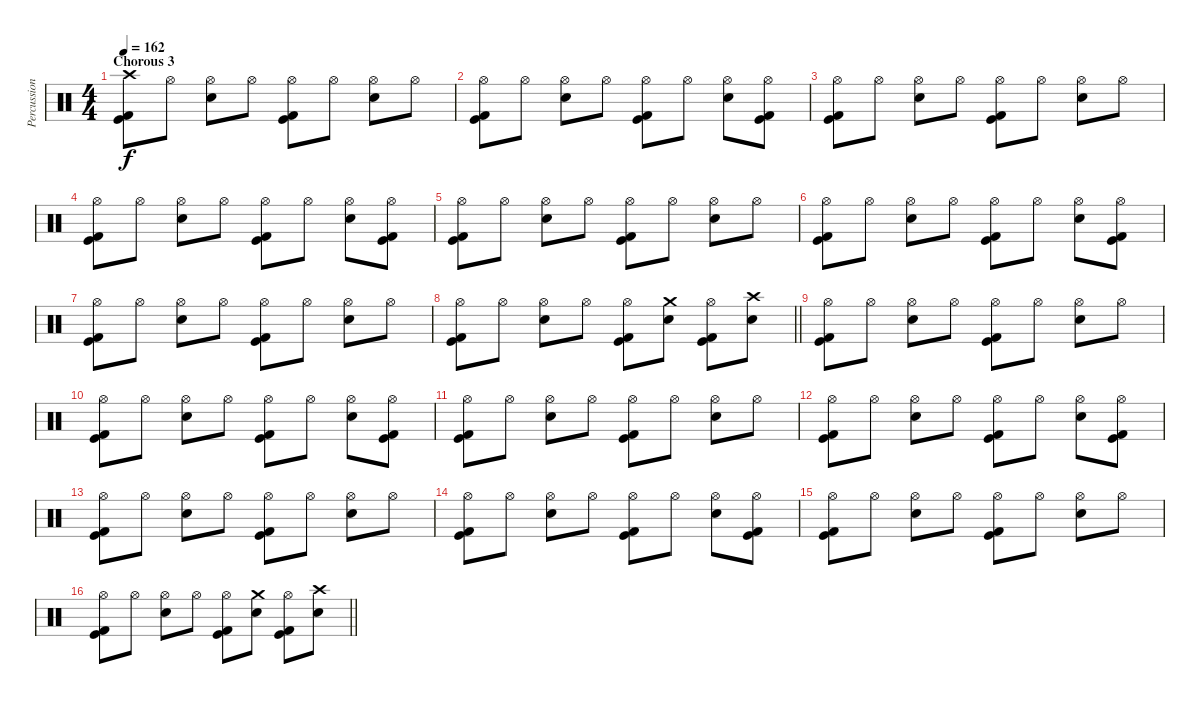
\track ("Percussion" "Percussion") {instrument percussion}
\staff {score}
\articulation defaults
\ts (4 4)
\section ("" "Chorous 3")
\tempo 162
\clef neutral
\ks c
("Crash high (hit)" "Kick (hit)" "Kick (hit) 2").8{dy f} "Hi-Hat (open)".8 ("Hi-Hat (open)" "Electric Snare (hit)").8 "Hi-Hat (open)".8 ("Hi-Hat (open)" "Kick (hit)" "Kick (hit) 2").8 "Hi-Hat (open)".8 ("Hi-Hat (open)" "Electric Snare (hit)").8 "Hi-Hat (open)".8 |
("Hi-Hat (open)" "Kick (hit)" "Kick (hit) 2").8 "Hi-Hat (open)".8 ("Hi-Hat (open)" "Electric Snare (hit)").8 "Hi-Hat (open)".8 ("Hi-Hat (open)" "Kick (hit)" "Kick (hit) 2").8 "Hi-Hat (open)".8 ("Hi-Hat (open)" "Electric Snare (hit)").8 ("Hi-Hat (open)" "Kick (hit)" "Kick (hit) 2").8 |
("Hi-Hat (open)" "Kick (hit)" "Kick (hit) 2").8 "Hi-Hat (open)".8 ("Hi-Hat (open)" "Electric Snare (hit)").8 "Hi-Hat (open)".8 ("Hi-Hat (open)" "Kick (hit)" "Kick (hit) 2").8 "Hi-Hat (open)".8 ("Hi-Hat (open)" "Electric Snare (hit)").8 "Hi-Hat (open)".8 |
("Hi-Hat (open)" "Kick (hit)" "Kick (hit) 2").8 "Hi-Hat (open)".8 ("Hi-Hat (open)" "Electric Snare (hit)").8 "Hi-Hat (open)".8 ("Hi-Hat (open)" "Kick (hit)" "Kick (hit) 2").8 "Hi-Hat (open)".8 ("Hi-Hat (open)" "Electric Snare (hit)").8 ("Hi-Hat (open)" "Kick (hit)" "Kick (hit) 2").8 |
("Hi-Hat (open)" "Kick (hit)" "Kick (hit) 2").8 "Hi-Hat (open)".8 ("Hi-Hat (open)" "Electric Snare (hit)").8 "Hi-Hat (open)".8 ("Hi-Hat (open)" "Kick (hit)" "Kick (hit) 2").8 "Hi-Hat (open)".8 ("Hi-Hat (open)" "Electric Snare (hit)").8 "Hi-Hat (open)".8 |
("Hi-Hat (open)" "Kick (hit)" "Kick (hit) 2").8 "Hi-Hat (open)".8 ("Hi-Hat (open)" "Electric Snare (hit)").8 "Hi-Hat (open)".8 ("Hi-Hat (open)" "Kick (hit)" "Kick (hit) 2").8 "Hi-Hat (open)".8 ("Hi-Hat (open)" "Electric Snare (hit)").8 ("Hi-Hat (open)" "Kick (hit)" "Kick (hit) 2").8 |
("Hi-Hat (open)" "Kick (hit)" "Kick (hit) 2").8 "Hi-Hat (open)".8 ("Hi-Hat (open)" "Electric Snare (hit)").8 "Hi-Hat (open)".8 ("Hi-Hat (open)" "Kick (hit)" "Kick (hit) 2").8 "Hi-Hat (open)".8 ("Hi-Hat (open)" "Electric Snare (hit)").8 "Hi-Hat (open)".8 |
\barLineRight lightlight
("Hi-Hat (open)" "Kick (hit)" "Kick (hit) 2").8 "Hi-Hat (open)".8 ("Hi-Hat (open)" "Electric Snare (hit)").8 "Hi-Hat (open)".8 ("Hi-Hat (open)" "Kick (hit)" "Kick (hit) 2").8 ("Crash medium (hit)" "Electric Snare (hit)").8 ("Hi-Hat (open)" "Kick (hit)" "Kick (hit) 2").8 ("Crash high (hit)" "Electric Snare (hit)").8 |
\section ("" "")
("Hi-Hat (open)" "Kick (hit)" "Kick (hit) 2").8 "Hi-Hat (open)".8 ("Hi-Hat (open)" "Electric Snare (hit)").8 "Hi-Hat (open)".8 ("Hi-Hat (open)" "Kick (hit)" "Kick (hit) 2").8 "Hi-Hat (open)".8 ("Hi-Hat (open)" "Electric Snare (hit)").8 "Hi-Hat (open)".8 |
("Hi-Hat (open)" "Kick (hit)" "Kick (hit) 2").8 "Hi-Hat (open)".8 ("Hi-Hat (open)" "Electric Snare (hit)").8 "Hi-Hat (open)".8 ("Hi-Hat (open)" "Kick (hit)" "Kick (hit) 2").8 "Hi-Hat (open)".8 ("Hi-Hat (open)" "Electric Snare (hit)").8 ("Hi-Hat (open)" "Kick (hit)" "Kick (hit) 2").8 |
("Hi-Hat (open)" "Kick (hit)" "Kick (hit) 2").8 "Hi-Hat (open)".8 ("Hi-Hat (open)" "Electric Snare (hit)").8 "Hi-Hat (open)".8 ("Hi-Hat (open)" "Kick (hit)" "Kick (hit) 2").8 "Hi-Hat (open)".8 ("Hi-Hat (open)" "Electric Snare (hit)").8 "Hi-Hat (open)".8 |
("Hi-Hat (open)" "Kick (hit)" "Kick (hit) 2").8 "Hi-Hat (open)".8 ("Hi-Hat (open)" "Electric Snare (hit)").8 "Hi-Hat (open)".8 ("Hi-Hat (open)" "Kick (hit)" "Kick (hit) 2").8 "Hi-Hat (open)".8 ("Hi-Hat (open)" "Electric Snare (hit)").8 ("Hi-Hat (open)" "Kick (hit)" "Kick (hit) 2").8 |
("Hi-Hat (open)" "Kick (hit)" "Kick (hit) 2").8 "Hi-Hat (open)".8 ("Hi-Hat (open)" "Electric Snare (hit)").8 "Hi-Hat (open)".8 ("Hi-Hat (open)" "Kick (hit)" "Kick (hit) 2").8 "Hi-Hat (open)".8 ("Hi-Hat (open)" "Electric Snare (hit)").8 "Hi-Hat (open)".8 |
("Hi-Hat (open)" "Kick (hit)" "Kick (hit) 2").8 "Hi-Hat (open)".8 ("Hi-Hat (open)" "Electric Snare (hit)").8 "Hi-Hat (open)".8 ("Hi-Hat (open)" "Kick (hit)" "Kick (hit) 2").8 "Hi-Hat (open)".8 ("Hi-Hat (open)" "Electric Snare (hit)").8 ("Hi-Hat (open)" "Kick (hit)" "Kick (hit) 2").8 |
("Hi-Hat (open)" "Kick (hit)" "Kick (hit) 2").8 "Hi-Hat (open)".8 ("Hi-Hat (open)" "Electric Snare (hit)").8 "Hi-Hat (open)".8 ("Hi-Hat (open)" "Kick (hit)" "Kick (hit) 2").8 "Hi-Hat (open)".8 ("Hi-Hat (open)" "Electric Snare (hit)").8 "Hi-Hat (open)".8 |
\barLineRight lightlight
("Hi-Hat (open)" "Kick (hit)" "Kick (hit) 2").8 "Hi-Hat (open)".8 ("Hi-Hat (open)" "Electric Snare (hit)").8 "Hi-Hat (open)".8 ("Hi-Hat (open)" "Kick (hit)" "Kick (hit) 2").8 ("Crash medium (hit)" "Electric Snare (hit)").8 ("Hi-Hat (open)" "Kick (hit)" "Kick (hit) 2").8 ("Crash high (hit)" "Electric Snare (hit)").8
